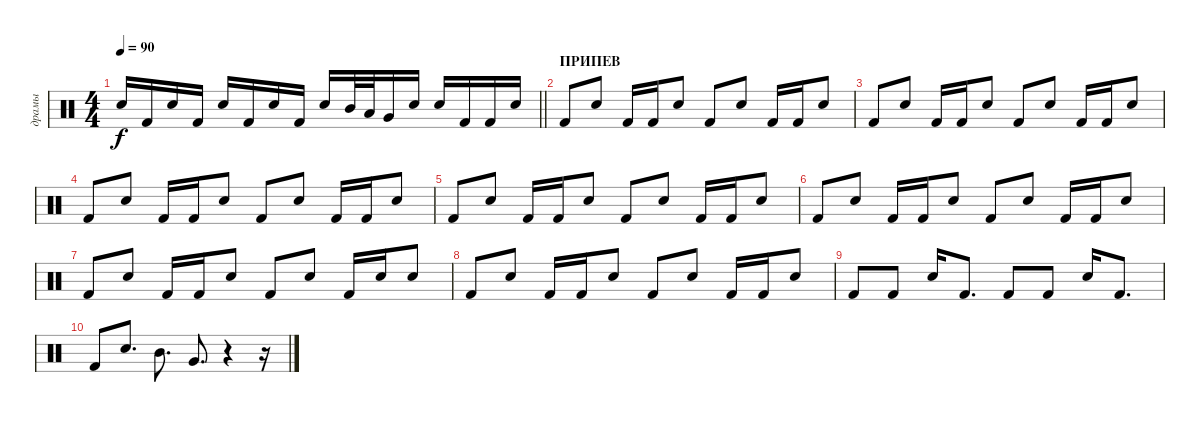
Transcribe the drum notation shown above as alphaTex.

\track ("драмы" "драмы") {instrument percussion}
\staff {score}
\articulation defaults
\ts (4 4)
\tempo 90
\clef neutral
\barLineRight lightlight
\ks c "Electric Snare (hit)".16{dy f} "Kick (hit) 2".16 "Electric Snare (hit)".16 "Kick (hit) 2".16 "Electric Snare (hit)".16 "Kick (hit) 2".16 "Electric Snare (hit)".16 "Kick (hit) 2".16 "Electric Snare (hit)".16 "Mid Tom (hit)".32 "Low Tom (hit)".32 "Very Low Tom (hit)".16 "Electric Snare (hit)".16 "Electric Snare (hit)".16 "Kick (hit) 2".16 "Kick (hit) 2".16 "Electric Snare (hit)".16
|
\section ("" "ПРИПЕВ")
"Kick (hit) 2".8 "Electric Snare (hit)".8 "Kick (hit) 2".16 "Kick (hit) 2".16 "Electric Snare (hit)".8 "Kick (hit) 2".8 "Electric Snare (hit)".8 "Kick (hit) 2".16 "Kick (hit) 2".16 "Electric Snare (hit)".8 |
"Kick (hit) 2".8 "Electric Snare (hit)".8 "Kick (hit) 2".16 "Kick (hit) 2".16 "Electric Snare (hit)".8 "Kick (hit) 2".8 "Electric Snare (hit)".8 "Kick (hit) 2".16 "Kick (hit) 2".16 "Electric Snare (hit)".8 |
"Kick (hit) 2".8 "Electric Snare (hit)".8 "Kick (hit) 2".16 "Kick (hit) 2".16 "Electric Snare (hit)".8 "Kick (hit) 2".8 "Electric Snare (hit)".8 "Kick (hit) 2".16 "Kick (hit) 2".16 "Electric Snare (hit)".8 |
"Kick (hit) 2".8 "Electric Snare (hit)".8 "Kick (hit) 2".16 "Kick (hit) 2".16 "Electric Snare (hit)".8 "Kick (hit) 2".8 "Electric Snare (hit)".8 "Kick (hit) 2".16 "Kick (hit) 2".16 "Electric Snare (hit)".8 |
"Kick (hit) 2".8 "Electric Snare (hit)".8 "Kick (hit) 2".16 "Kick (hit) 2".16 "Electric Snare (hit)".8 "Kick (hit) 2".8 "Electric Snare (hit)".8 "Kick (hit) 2".16 "Kick (hit) 2".16 "Electric Snare (hit)".8 |
"Kick (hit) 2".8 "Electric Snare (hit)".8 "Kick (hit) 2".16 "Kick (hit) 2".16 "Electric Snare (hit)".8 "Kick (hit) 2".8 "Electric Snare (hit)".8 "Kick (hit) 2".16 "Electric Snare (hit)".16 "Electric Snare (hit)".8 |
"Kick (hit) 2".8 "Electric Snare (hit)".8 "Kick (hit) 2".16 "Kick (hit) 2".16 "Electric Snare (hit)".8 "Kick (hit) 2".8 "Electric Snare (hit)".8 "Kick (hit) 2".16 "Kick (hit) 2".16 "Electric Snare (hit)".8 |
"Kick (hit) 2".8 "Kick (hit) 2".8 "Electric Snare (hit)".16 "Kick (hit) 2".8{d} "Kick (hit) 2".8 "Kick (hit) 2".8 "Electric Snare (hit)".16 "Kick (hit) 2".8{d} |
"Kick (hit) 2".8 "Electric Snare (hit)".8{d} "Mid Tom (hit)".8{d} "Very Low Tom (hit)".8{d} r.4 r.16
